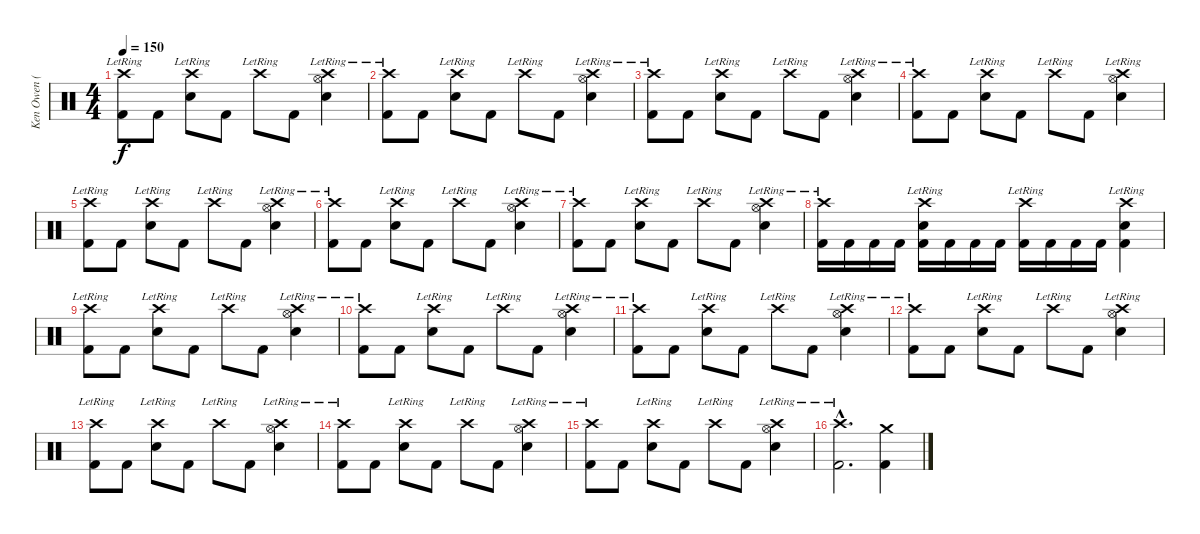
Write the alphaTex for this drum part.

\track ("Ken Owen (Drums)" "Ken Owen (") {instrument percussion}
\staff {score}
\articulation defaults
\ts (4 4)
\tempo 150
\clef neutral
\ks c
("Crash high (hit)"{lr} "Kick (hit) 2").8{dy f} "Kick (hit) 2".8 ("Crash high (hit)"{lr} "Snare (hit) 2").8 "Kick (hit) 2".8 "Crash high (hit)"{lr}.8 "Kick (hit) 2".8 ("Crash high (hit)"{lr} "Hi-Hat (open)"{lr} "Snare (hit) 2").4 |
("Crash high (hit)"{lr} "Kick (hit) 2").8 "Kick (hit) 2".8 ("Crash high (hit)"{lr} "Snare (hit) 2").8 "Kick (hit) 2".8 "Crash high (hit)"{lr}.8 "Kick (hit) 2".8 ("Crash high (hit)"{lr} "Hi-Hat (open)"{lr} "Snare (hit) 2").4 |
("Crash high (hit)"{lr} "Kick (hit) 2").8 "Kick (hit) 2".8 ("Crash high (hit)"{lr} "Snare (hit) 2").8 "Kick (hit) 2".8 "Crash high (hit)"{lr}.8 "Kick (hit) 2".8 ("Crash high (hit)"{lr} "Hi-Hat (open)"{lr} "Snare (hit) 2").4 |
("Crash high (hit)"{lr} "Kick (hit) 2").8 "Kick (hit) 2".8 ("Crash high (hit)"{lr} "Snare (hit) 2").8 "Kick (hit) 2".8 "Crash high (hit)"{lr}.8 "Kick (hit) 2".8 ("Crash high (hit)"{lr} "Hi-Hat (open)"{lr} "Snare (hit) 2").4 |
("Crash high (hit)"{lr} "Kick (hit) 2").8 "Kick (hit) 2".8 ("Crash high (hit)"{lr} "Snare (hit) 2").8 "Kick (hit) 2".8 "Crash high (hit)"{lr}.8 "Kick (hit) 2".8 ("Crash high (hit)"{lr} "Hi-Hat (open)"{lr} "Snare (hit) 2").4 |
("Crash high (hit)"{lr} "Kick (hit) 2").8 "Kick (hit) 2".8 ("Crash high (hit)"{lr} "Snare (hit) 2").8 "Kick (hit) 2".8 "Crash high (hit)"{lr}.8 "Kick (hit) 2".8 ("Crash high (hit)"{lr} "Hi-Hat (open)"{lr} "Snare (hit) 2").4 |
("Crash high (hit)"{lr} "Kick (hit) 2").8 "Kick (hit) 2".8 ("Crash high (hit)"{lr} "Snare (hit) 2").8 "Kick (hit) 2".8 "Crash high (hit)"{lr}.8 "Kick (hit) 2".8 ("Crash high (hit)"{lr} "Hi-Hat (open)"{lr} "Snare (hit) 2").4 |
("Crash high (hit)"{lr} "Kick (hit) 2").16 "Kick (hit) 2".16 "Kick (hit) 2".16 "Kick (hit) 2".16 ("Crash high (hit)"{lr} "Snare (hit) 2" "Kick (hit) 2").16 "Kick (hit) 2".16 "Kick (hit) 2".16 "Kick (hit) 2".16 ("Crash high (hit)"{lr} "Kick (hit) 2").16 "Kick (hit) 2".16 "Kick (hit) 2".16 "Kick (hit) 2".16 ("Crash high (hit)"{lr} "Snare (hit) 2" "Kick (hit) 2").4 |
("Crash high (hit)"{lr} "Kick (hit) 2").8 "Kick (hit) 2".8 ("Crash high (hit)"{lr} "Snare (hit) 2").8 "Kick (hit) 2".8 "Crash high (hit)"{lr}.8 "Kick (hit) 2".8 ("Crash high (hit)"{lr} "Hi-Hat (open)"{lr} "Snare (hit) 2").4 |
("Crash high (hit)"{lr} "Kick (hit) 2").8 "Kick (hit) 2".8 ("Crash high (hit)"{lr} "Snare (hit) 2").8 "Kick (hit) 2".8 "Crash high (hit)"{lr}.8 "Kick (hit) 2".8 ("Crash high (hit)"{lr} "Hi-Hat (open)"{lr} "Snare (hit) 2").4 |
("Crash high (hit)"{lr} "Kick (hit) 2").8 "Kick (hit) 2".8 ("Crash high (hit)"{lr} "Snare (hit) 2").8 "Kick (hit) 2".8 "Crash high (hit)"{lr}.8 "Kick (hit) 2".8 ("Crash high (hit)"{lr} "Hi-Hat (open)"{lr} "Snare (hit) 2").4 |
("Crash high (hit)"{lr} "Kick (hit) 2").8 "Kick (hit) 2".8 ("Crash high (hit)"{lr} "Snare (hit) 2").8 "Kick (hit) 2".8 "Crash high (hit)"{lr}.8 "Kick (hit) 2".8 ("Crash high (hit)"{lr} "Hi-Hat (open)"{lr} "Snare (hit) 2").4 |
("Crash high (hit)"{lr} "Kick (hit) 2").8 "Kick (hit) 2".8 ("Crash high (hit)"{lr} "Snare (hit) 2").8 "Kick (hit) 2".8 "Crash high (hit)"{lr}.8 "Kick (hit) 2".8 ("Crash high (hit)"{lr} "Hi-Hat (open)"{lr} "Snare (hit) 2").4 |
("Crash high (hit)"{lr} "Kick (hit) 2").8 "Kick (hit) 2".8 ("Crash high (hit)"{lr} "Snare (hit) 2").8 "Kick (hit) 2".8 "Crash high (hit)"{lr}.8 "Kick (hit) 2".8 ("Crash high (hit)"{lr} "Hi-Hat (open)"{lr} "Snare (hit) 2").4 |
("Crash high (hit)"{lr} "Kick (hit) 2").8 "Kick (hit) 2".8 ("Crash high (hit)"{lr} "Snare (hit) 2").8 "Kick (hit) 2".8 "Crash high (hit)"{lr}.8 "Kick (hit) 2".8 ("Crash high (hit)"{lr} "Hi-Hat (open)"{lr} "Snare (hit) 2").4 |
("Crash high (hit)"{hac lr} "Kick (hit) 2"{hac}).2{d} ("Crash medium (hit)" "Kick (hit) 2").4
